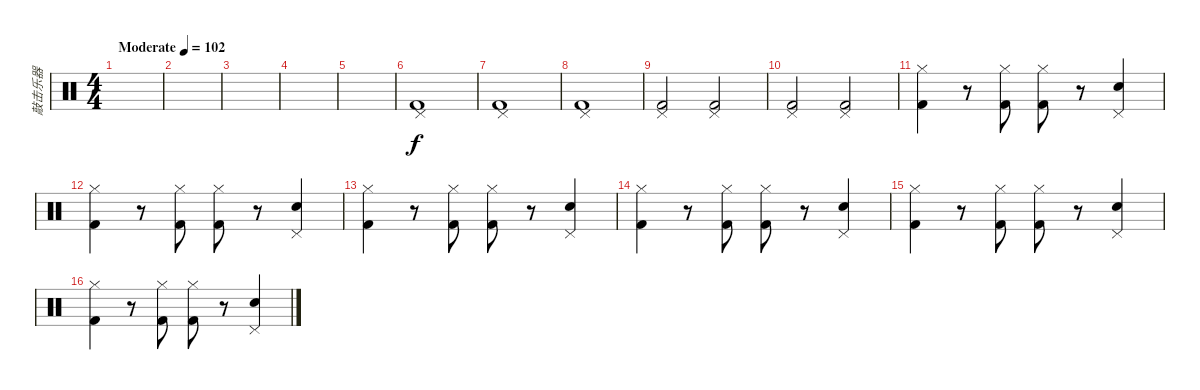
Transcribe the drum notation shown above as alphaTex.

\track ("敲击乐器" "敲击乐器") {instrument percussion}
\staff {score}
\articulation defaults
\ts (4 4)
\tempo (102 "Moderate")
\clef neutral
\ks c
|
|
|
|
|
("Pedal Hi-Hat (hit)" "Kick (hit) 2").1 |
("Pedal Hi-Hat (hit)" "Kick (hit) 2").1 |
("Pedal Hi-Hat (hit)" "Kick (hit) 2").1 |
("Pedal Hi-Hat (hit)" "Kick (hit) 2").2 ("Pedal Hi-Hat (hit)" "Kick (hit) 2").2 |
("Pedal Hi-Hat (hit)" "Kick (hit) 2").2 ("Pedal Hi-Hat (hit)" "Kick (hit) 2").2 |
("Hi-Hat (closed)" "Kick (hit) 2").4 r.8 ("Hi-Hat (closed)" "Kick (hit) 2").8 ("Hi-Hat (closed)" "Kick (hit) 2").8 r.8 ("Pedal Hi-Hat (hit)" "Snare (hit) 2").4 |
("Hi-Hat (closed)" "Kick (hit) 2").4 r.8 ("Hi-Hat (closed)" "Kick (hit) 2").8 ("Hi-Hat (closed)" "Kick (hit) 2").8 r.8 ("Pedal Hi-Hat (hit)" "Snare (hit) 2").4 |
("Hi-Hat (closed)" "Kick (hit) 2").4 r.8 ("Hi-Hat (closed)" "Kick (hit) 2").8 ("Hi-Hat (closed)" "Kick (hit) 2").8 r.8 ("Pedal Hi-Hat (hit)" "Snare (hit) 2").4 |
("Hi-Hat (closed)" "Kick (hit) 2").4 r.8 ("Hi-Hat (closed)" "Kick (hit) 2").8 ("Hi-Hat (closed)" "Kick (hit) 2").8 r.8 ("Pedal Hi-Hat (hit)" "Snare (hit) 2").4 |
("Hi-Hat (closed)" "Kick (hit) 2").4 r.8 ("Hi-Hat (closed)" "Kick (hit) 2").8 ("Hi-Hat (closed)" "Kick (hit) 2").8 r.8 ("Pedal Hi-Hat (hit)" "Snare (hit) 2").4 |
("Hi-Hat (closed)" "Kick (hit) 2").4 r.8 ("Hi-Hat (closed)" "Kick (hit) 2").8 ("Hi-Hat (closed)" "Kick (hit) 2").8 r.8 ("Pedal Hi-Hat (hit)" "Snare (hit) 2").4
